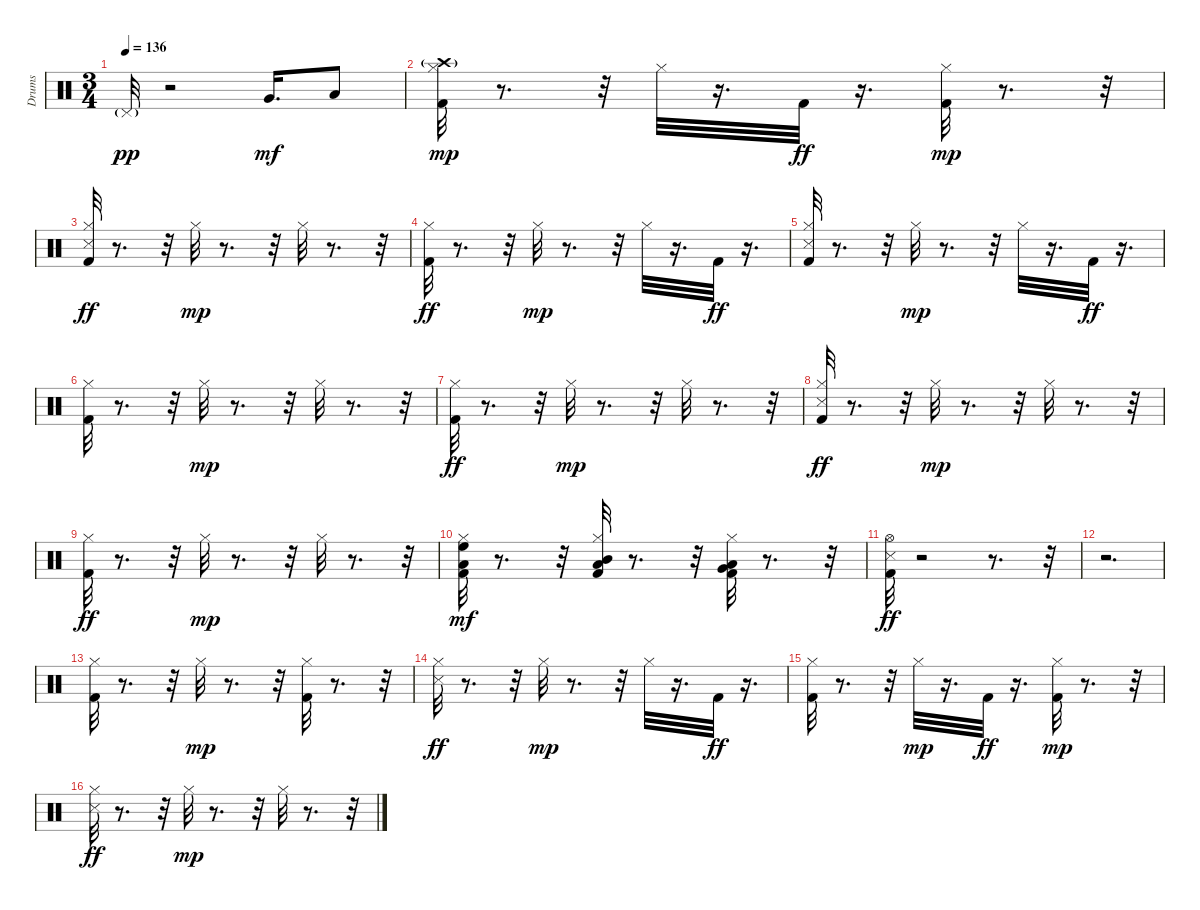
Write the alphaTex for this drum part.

\track ("Drums  " "Drums  ") {instrument percussion}
\staff {score}
\articulation defaults
\ts (3 4)
\tempo 136
\clef neutral
\ks c "Pedal Hi-Hat (hit)"{g}.32{dy pp}
r.2 "Very Low Tom (hit)".16{d dy mf} "Low Tom (hit)".8 |
("Kick (hit) 2" "Hi-Hat (closed)" "Crash high (hit)"{g}).32{dy mp} r.8{d} r.32 "Hi-Hat (closed)".32 r.16{d} "Kick (hit) 2".32{dy ff} r.16{d} ("Kick (hit) 2" "Hi-Hat (closed)").32{dy mp} r.8{d} r.32 |
("Kick (hit) 2" "Hi-Hat (closed)" "Snare (side stick) 3").32{dy ff} r.8{d} r.32 "Hi-Hat (closed)".32{dy mp} r.8{d} r.32 "Hi-Hat (closed)".32 r.8{d} r.32 |
("Kick (hit) 2" "Hi-Hat (closed)").32{dy ff} r.8{d} r.32 "Hi-Hat (closed)".32{dy mp} r.8{d} r.32 "Hi-Hat (closed)".32 r.16{d} "Kick (hit) 2".32{dy ff} r.16{d} |
("Kick (hit) 2" "Hi-Hat (closed)" "Snare (side stick) 3").32 r.8{d} r.32 "Hi-Hat (closed)".32{dy mp} r.8{d} r.32 "Hi-Hat (closed)".32 r.16{d} "Kick (hit) 2".32{dy ff} r.16{d} |
("Kick (hit) 2" "Hi-Hat (closed)").32 r.8{d} r.32 "Hi-Hat (closed)".32{dy mp} r.8{d} r.32 "Hi-Hat (closed)".32 r.8{d} r.32 |
("Kick (hit) 2" "Hi-Hat (closed)").32{dy ff} r.8{d} r.32 "Hi-Hat (closed)".32{dy mp} r.8{d} r.32 "Hi-Hat (closed)".32 r.8{d} r.32 |
("Kick (hit) 2" "Hi-Hat (closed)" "Snare (side stick) 3").32{dy ff} r.8{d} r.32 "Hi-Hat (closed)".32{dy mp} r.8{d} r.32 "Hi-Hat (closed)".32 r.8{d} r.32 |
("Kick (hit) 2" "Hi-Hat (closed)").32{dy ff} r.8{d} r.32 "Hi-Hat (closed)".32{dy mp} r.8{d} r.32 "Hi-Hat (closed)".32 r.8{d} r.32 |
("Kick (hit) 2" "Hi-Hat (closed)" "High Floor Tom (hit)" "Low Tom (hit)").32{dy mf} r.8{d} r.32 ("Kick (hit) 2" "Hi-Hat (closed)" "Mid Tom (hit)" "Low Tom (hit)").32 r.8{d} r.32 ("Kick (hit) 2" "Hi-Hat (closed)" "Very Low Tom (hit)" "Low Tom (hit)").32 r.8{d} r.32 |
("Kick (hit) 2" "Hi-Hat (open)" "Snare (side stick) 3").32{dy ff} r.2 r.8{d} r.32 |
r.2{d} |
("Kick (hit) 2" "Hi-Hat (closed)").32 r.8{d} r.32 "Hi-Hat (closed)".32{dy mp} r.8{d} r.32 ("Kick (hit) 2" "Hi-Hat (closed)").32 r.8{d} r.32 |
("Hi-Hat (closed)" "Snare (side stick) 3").32{dy ff} r.8{d} r.32 "Hi-Hat (closed)".32{dy mp} r.8{d} r.32 "Hi-Hat (closed)".32 r.16{d} "Kick (hit) 2".32{dy ff} r.16{d} |
("Kick (hit) 2" "Hi-Hat (closed)").32 r.8{d} r.32 "Hi-Hat (closed)".32{dy mp} r.16{d} "Kick (hit) 2".32{dy ff} r.16{d} ("Kick (hit) 2" "Hi-Hat (closed)").32{dy mp} r.8{d} r.32 |
("Hi-Hat (closed)" "Snare (side stick) 3").32{dy ff} r.8{d} r.32 "Hi-Hat (closed)".32{dy mp} r.8{d} r.32 "Hi-Hat (closed)".32 r.8{d} r.32
